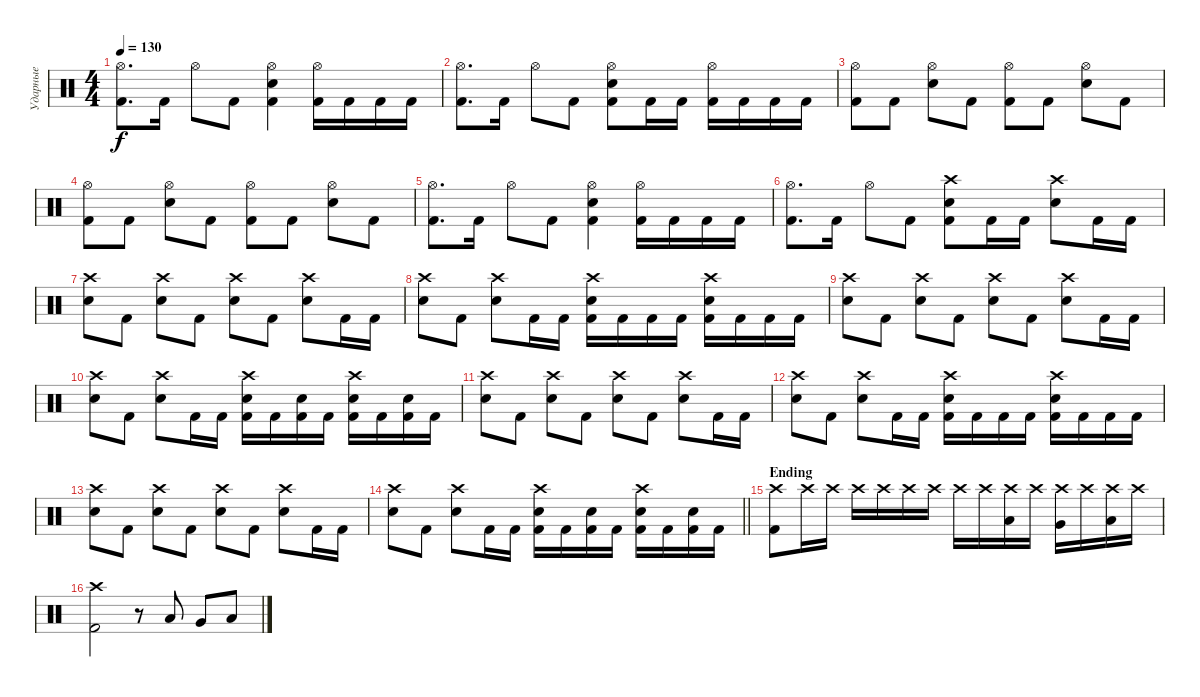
\track ("Ударные" "Ударные") {instrument percussion}
\staff {score}
\articulation defaults
\ts (4 4)
\tempo 130
\clef neutral
\ks c
("Hi-Hat (open)" "Kick (hit) 2").8{d dy f} "Kick (hit) 2".16 "Hi-Hat (open)".8 "Kick (hit) 2".8 ("Hi-Hat (open)" "Electric Snare (hit)" "Kick (hit) 2").4 ("Hi-Hat (open)" "Kick (hit) 2").16 "Kick (hit) 2".16 "Kick (hit) 2".16 "Kick (hit) 2".16 |
("Hi-Hat (open)" "Kick (hit) 2").8{d} "Kick (hit) 2".16 "Hi-Hat (open)".8 "Kick (hit) 2".8 ("Hi-Hat (open)" "Electric Snare (hit)" "Kick (hit) 2").8 "Kick (hit) 2".16 "Kick (hit) 2".16 ("Hi-Hat (open)" "Kick (hit) 2").16 "Kick (hit) 2".16 "Kick (hit) 2".16 "Kick (hit) 2".16 |
("Hi-Hat (open)" "Kick (hit) 2").8 "Kick (hit) 2".8 ("Hi-Hat (open)" "Electric Snare (hit)").8 "Kick (hit) 2".8 ("Hi-Hat (open)" "Kick (hit) 2").8 "Kick (hit) 2".8 ("Hi-Hat (open)" "Electric Snare (hit)").8 "Kick (hit) 2".8 |
("Hi-Hat (open)" "Kick (hit) 2").8 "Kick (hit) 2".8 ("Hi-Hat (open)" "Electric Snare (hit)").8 "Kick (hit) 2".8 ("Hi-Hat (open)" "Kick (hit) 2").8 "Kick (hit) 2".8 ("Hi-Hat (open)" "Electric Snare (hit)").8 "Kick (hit) 2".8 |
("Hi-Hat (open)" "Kick (hit) 2").8{d} "Kick (hit) 2".16 "Hi-Hat (open)".8 "Kick (hit) 2".8 ("Hi-Hat (open)" "Electric Snare (hit)" "Kick (hit) 2").4 ("Hi-Hat (open)" "Kick (hit) 2").16 "Kick (hit) 2".16 "Kick (hit) 2".16 "Kick (hit) 2".16 |
("Hi-Hat (open)" "Kick (hit) 2").8{d} "Kick (hit) 2".16 "Hi-Hat (open)".8 "Kick (hit) 2".8 ("Crash high (hit)" "Electric Snare (hit)" "Kick (hit) 2").8 "Kick (hit) 2".16 "Kick (hit) 2".16 ("Crash high (hit)" "Electric Snare (hit)").8 "Kick (hit) 2".16 "Kick (hit) 2".16 |
("Crash high (hit)" "Electric Snare (hit)").8 "Kick (hit) 2".8 ("Crash high (hit)" "Electric Snare (hit)").8 "Kick (hit) 2".8 ("Crash high (hit)" "Electric Snare (hit)").8 "Kick (hit) 2".8 ("Crash high (hit)" "Electric Snare (hit)").8 "Kick (hit) 2".16 "Kick (hit) 2".16 |
("Crash high (hit)" "Electric Snare (hit)").8 "Kick (hit) 2".8 ("Crash high (hit)" "Electric Snare (hit)").8 "Kick (hit) 2".16 "Kick (hit) 2".16 ("Crash high (hit)" "Electric Snare (hit)" "Kick (hit) 2").16 "Kick (hit) 2".16 "Kick (hit) 2".16 "Kick (hit) 2".16 ("Crash high (hit)" "Electric Snare (hit)" "Kick (hit) 2").16 "Kick (hit) 2".16 "Kick (hit) 2".16 "Kick (hit) 2".16 |
("Crash high (hit)" "Electric Snare (hit)").8 "Kick (hit) 2".8 ("Crash high (hit)" "Electric Snare (hit)").8 "Kick (hit) 2".8 ("Crash high (hit)" "Electric Snare (hit)").8 "Kick (hit) 2".8 ("Crash high (hit)" "Electric Snare (hit)").8 "Kick (hit) 2".16 "Kick (hit) 2".16 |
("Crash high (hit)" "Electric Snare (hit)").8 "Kick (hit) 2".8 ("Crash high (hit)" "Electric Snare (hit)").8 "Kick (hit) 2".16 "Kick (hit) 2".16 ("Crash high (hit)" "Electric Snare (hit)" "Kick (hit) 2").16 "Kick (hit) 2".16 ("Electric Snare (hit)" "Kick (hit) 2").16 "Kick (hit) 2".16 ("Crash high (hit)" "Electric Snare (hit)" "Kick (hit) 2").16 "Kick (hit) 2".16 ("Electric Snare (hit)" "Kick (hit) 2").16 "Kick (hit) 2".16 |
("Crash high (hit)" "Electric Snare (hit)").8 "Kick (hit) 2".8 ("Crash high (hit)" "Electric Snare (hit)").8 "Kick (hit) 2".8 ("Crash high (hit)" "Electric Snare (hit)").8 "Kick (hit) 2".8 ("Crash high (hit)" "Electric Snare (hit)").8 "Kick (hit) 2".16 "Kick (hit) 2".16 |
("Crash high (hit)" "Electric Snare (hit)").8 "Kick (hit) 2".8 ("Crash high (hit)" "Electric Snare (hit)").8 "Kick (hit) 2".16 "Kick (hit) 2".16 ("Crash high (hit)" "Electric Snare (hit)" "Kick (hit) 2").16 "Kick (hit) 2".16 "Kick (hit) 2".16 "Kick (hit) 2".16 ("Crash high (hit)" "Electric Snare (hit)" "Kick (hit) 2").16 "Kick (hit) 2".16 "Kick (hit) 2".16 "Kick (hit) 2".16 |
("Crash high (hit)" "Electric Snare (hit)").8 "Kick (hit) 2".8 ("Crash high (hit)" "Electric Snare (hit)").8 "Kick (hit) 2".8 ("Crash high (hit)" "Electric Snare (hit)").8 "Kick (hit) 2".8 ("Crash high (hit)" "Electric Snare (hit)").8 "Kick (hit) 2".16 "Kick (hit) 2".16 |
\barLineRight lightlight
("Crash high (hit)" "Electric Snare (hit)").8 "Kick (hit) 2".8 ("Crash high (hit)" "Electric Snare (hit)").8 "Kick (hit) 2".16 "Kick (hit) 2".16 ("Crash high (hit)" "Electric Snare (hit)" "Kick (hit) 2").16 "Kick (hit) 2".16 ("Electric Snare (hit)" "Kick (hit) 2").16 "Kick (hit) 2".16 ("Crash high (hit)" "Electric Snare (hit)" "Kick (hit) 2").16 "Kick (hit) 2".16 ("Electric Snare (hit)" "Kick (hit) 2").16 "Kick (hit) 2".16 |
\section ("" "Ending")
("Crash high (hit)" "Kick (hit) 2").8 "Crash high (hit)".16{volume 9} "Crash high (hit)".16{volume 13} "Crash high (hit)".16 "Crash high (hit)".16 "Crash high (hit)".16 "Crash high (hit)".16 "Crash high (hit)".16 "Crash high (hit)".16 ("Crash high (hit)" "Low Tom (hit)").16 "Crash high (hit)".16 ("Crash high (hit)" "Very Low Tom (hit)").16 "Crash high (hit)".16 ("Crash high (hit)" "Low Floor Tom (hit)").16 "Crash high (hit)".16 |
("Crash high (hit)" "Kick (hit) 2").2 r.8 "Low Tom (hit)".8 "Very Low Tom (hit)".8 "Low Floor Tom (hit)".8
